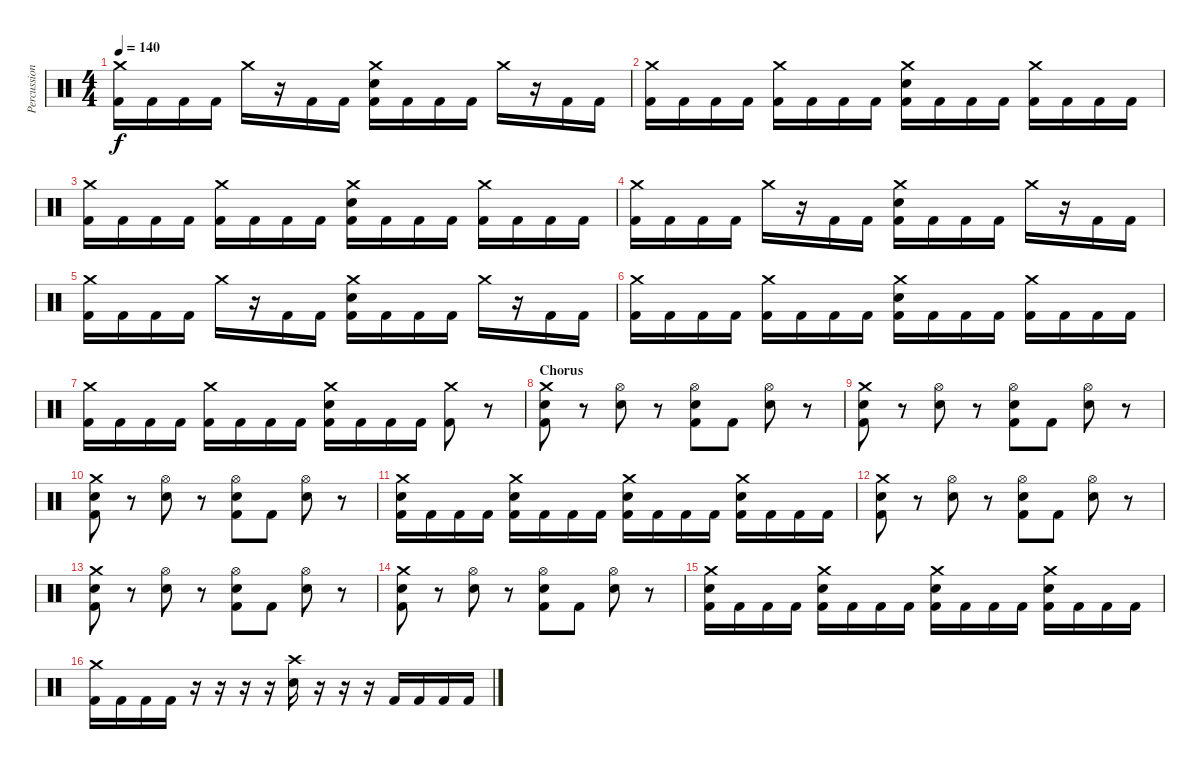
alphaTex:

\track ("Percussions" "Percussion") {instrument percussion}
\staff {score}
\articulation defaults
\ts (4 4)
\tempo 140
\clef neutral
\ks c
("Crash medium (hit)" "Kick (hit) 2").16{dy f} "Kick (hit) 2".16 "Kick (hit) 2".16 "Kick (hit) 2".16 "Crash medium (hit)".16 r.16 "Kick (hit) 2".16 "Kick (hit) 2".16 ("Crash medium (hit)" "Snare (hit) 2" "Kick (hit) 2").16 "Kick (hit) 2".16 "Kick (hit) 2".16 "Kick (hit) 2".16 "Crash medium (hit)".16 r.16 "Kick (hit) 2".16 "Kick (hit) 2".16 |
("Crash medium (hit)" "Kick (hit) 2").16 "Kick (hit) 2".16 "Kick (hit) 2".16 "Kick (hit) 2".16 ("Crash medium (hit)" "Kick (hit) 2").16 "Kick (hit) 2".16 "Kick (hit) 2".16 "Kick (hit) 2".16 ("Crash medium (hit)" "Snare (hit) 2" "Kick (hit) 2").16 "Kick (hit) 2".16 "Kick (hit) 2".16 "Kick (hit) 2".16 ("Crash medium (hit)" "Kick (hit) 2").16 "Kick (hit) 2".16 "Kick (hit) 2".16 "Kick (hit) 2".16 |
("Crash medium (hit)" "Kick (hit) 2").16 "Kick (hit) 2".16 "Kick (hit) 2".16 "Kick (hit) 2".16 ("Crash medium (hit)" "Kick (hit) 2").16 "Kick (hit) 2".16 "Kick (hit) 2".16 "Kick (hit) 2".16 ("Crash medium (hit)" "Snare (hit) 2" "Kick (hit) 2").16 "Kick (hit) 2".16 "Kick (hit) 2".16 "Kick (hit) 2".16 ("Crash medium (hit)" "Kick (hit) 2").16 "Kick (hit) 2".16 "Kick (hit) 2".16 "Kick (hit) 2".16 |
("Crash medium (hit)" "Kick (hit) 2").16 "Kick (hit) 2".16 "Kick (hit) 2".16 "Kick (hit) 2".16 "Crash medium (hit)".16 r.16 "Kick (hit) 2".16 "Kick (hit) 2".16 ("Crash medium (hit)" "Snare (hit) 2" "Kick (hit) 2").16 "Kick (hit) 2".16 "Kick (hit) 2".16 "Kick (hit) 2".16 "Crash medium (hit)".16 r.16 "Kick (hit) 2".16 "Kick (hit) 2".16 |
("Crash medium (hit)" "Kick (hit) 2").16 "Kick (hit) 2".16 "Kick (hit) 2".16 "Kick (hit) 2".16 "Crash medium (hit)".16 r.16 "Kick (hit) 2".16 "Kick (hit) 2".16 ("Crash medium (hit)" "Snare (hit) 2" "Kick (hit) 2").16 "Kick (hit) 2".16 "Kick (hit) 2".16 "Kick (hit) 2".16 "Crash medium (hit)".16 r.16 "Kick (hit) 2".16 "Kick (hit) 2".16 |
("Crash medium (hit)" "Kick (hit) 2").16 "Kick (hit) 2".16 "Kick (hit) 2".16 "Kick (hit) 2".16 ("Crash medium (hit)" "Kick (hit) 2").16 "Kick (hit) 2".16 "Kick (hit) 2".16 "Kick (hit) 2".16 ("Crash medium (hit)" "Snare (hit) 2" "Kick (hit) 2").16 "Kick (hit) 2".16 "Kick (hit) 2".16 "Kick (hit) 2".16 ("Crash medium (hit)" "Kick (hit) 2").16 "Kick (hit) 2".16 "Kick (hit) 2".16 "Kick (hit) 2".16 |
("Crash medium (hit)" "Kick (hit) 2").16 "Kick (hit) 2".16 "Kick (hit) 2".16 "Kick (hit) 2".16 ("Crash medium (hit)" "Kick (hit) 2").16 "Kick (hit) 2".16 "Kick (hit) 2".16 "Kick (hit) 2".16 ("Crash medium (hit)" "Snare (hit) 2" "Kick (hit) 2").16 "Kick (hit) 2".16 "Kick (hit) 2".16 "Kick (hit) 2".16 ("Crash medium (hit)" "Kick (hit) 2").8 r.8 |
\section ("" "Chorus")
("Crash medium (hit)" "Snare (hit) 2" "Kick (hit) 2").8 r.8 ("Hi-Hat (open)" "Snare (hit) 2").8 r.8 ("Hi-Hat (open)" "Snare (hit) 2" "Kick (hit) 2").8 "Kick (hit) 2".8 ("Hi-Hat (open)" "Snare (hit) 2").8 r.8 |
("Crash medium (hit)" "Snare (hit) 2" "Kick (hit) 2").8 r.8 ("Hi-Hat (open)" "Snare (hit) 2").8 r.8 ("Hi-Hat (open)" "Snare (hit) 2" "Kick (hit) 2").8 "Kick (hit) 2".8 ("Hi-Hat (open)" "Snare (hit) 2").8 r.8 |
("Crash medium (hit)" "Snare (hit) 2" "Kick (hit) 2").8 r.8 ("Hi-Hat (open)" "Snare (hit) 2").8 r.8 ("Hi-Hat (open)" "Snare (hit) 2" "Kick (hit) 2").8 "Kick (hit) 2".8 ("Hi-Hat (open)" "Snare (hit) 2").8 r.8 |
("Crash medium (hit)" "Snare (hit) 2" "Kick (hit) 2").16 "Kick (hit) 2".16 "Kick (hit) 2".16 "Kick (hit) 2".16 ("Crash medium (hit)" "Snare (hit) 2" "Kick (hit) 2").16 "Kick (hit) 2".16 "Kick (hit) 2".16 "Kick (hit) 2".16 ("Crash medium (hit)" "Snare (hit) 2" "Kick (hit) 2").16 "Kick (hit) 2".16 "Kick (hit) 2".16 "Kick (hit) 2".16 ("Crash medium (hit)" "Snare (hit) 2" "Kick (hit) 2").16 "Kick (hit) 2".16 "Kick (hit) 2".16 "Kick (hit) 2".16 |
("Crash medium (hit)" "Snare (hit) 2" "Kick (hit) 2").8 r.8 ("Hi-Hat (open)" "Snare (hit) 2").8 r.8 ("Hi-Hat (open)" "Snare (hit) 2" "Kick (hit) 2").8 "Kick (hit) 2".8 ("Hi-Hat (open)" "Snare (hit) 2").8 r.8 |
("Crash medium (hit)" "Snare (hit) 2" "Kick (hit) 2").8 r.8 ("Hi-Hat (open)" "Snare (hit) 2").8 r.8 ("Hi-Hat (open)" "Snare (hit) 2" "Kick (hit) 2").8 "Kick (hit) 2".8 ("Hi-Hat (open)" "Snare (hit) 2").8 r.8 |
("Crash medium (hit)" "Snare (hit) 2" "Kick (hit) 2").8 r.8 ("Hi-Hat (open)" "Snare (hit) 2").8 r.8 ("Hi-Hat (open)" "Snare (hit) 2" "Kick (hit) 2").8 "Kick (hit) 2".8 ("Hi-Hat (open)" "Snare (hit) 2").8 r.8 |
("Crash medium (hit)" "Snare (hit) 2" "Kick (hit) 2").16 "Kick (hit) 2".16 "Kick (hit) 2".16 "Kick (hit) 2".16 ("Crash medium (hit)" "Snare (hit) 2" "Kick (hit) 2").16 "Kick (hit) 2".16 "Kick (hit) 2".16 "Kick (hit) 2".16 ("Crash medium (hit)" "Snare (hit) 2" "Kick (hit) 2").16 "Kick (hit) 2".16 "Kick (hit) 2".16 "Kick (hit) 2".16 ("Crash medium (hit)" "Snare (hit) 2" "Kick (hit) 2").16 "Kick (hit) 2".16 "Kick (hit) 2".16 "Kick (hit) 2".16 |
("Crash medium (hit)" "Kick (hit) 2").16 "Kick (hit) 2".16 "Kick (hit) 2".16 "Kick (hit) 2".16 r.16 r.16 r.16 r.16 ("Crash high (hit)" "Snare (hit) 2").16 r.16 r.16 r.16 "Kick (hit) 2".16 "Kick (hit) 2".16 "Kick (hit) 2".16 "Kick (hit) 2".16
